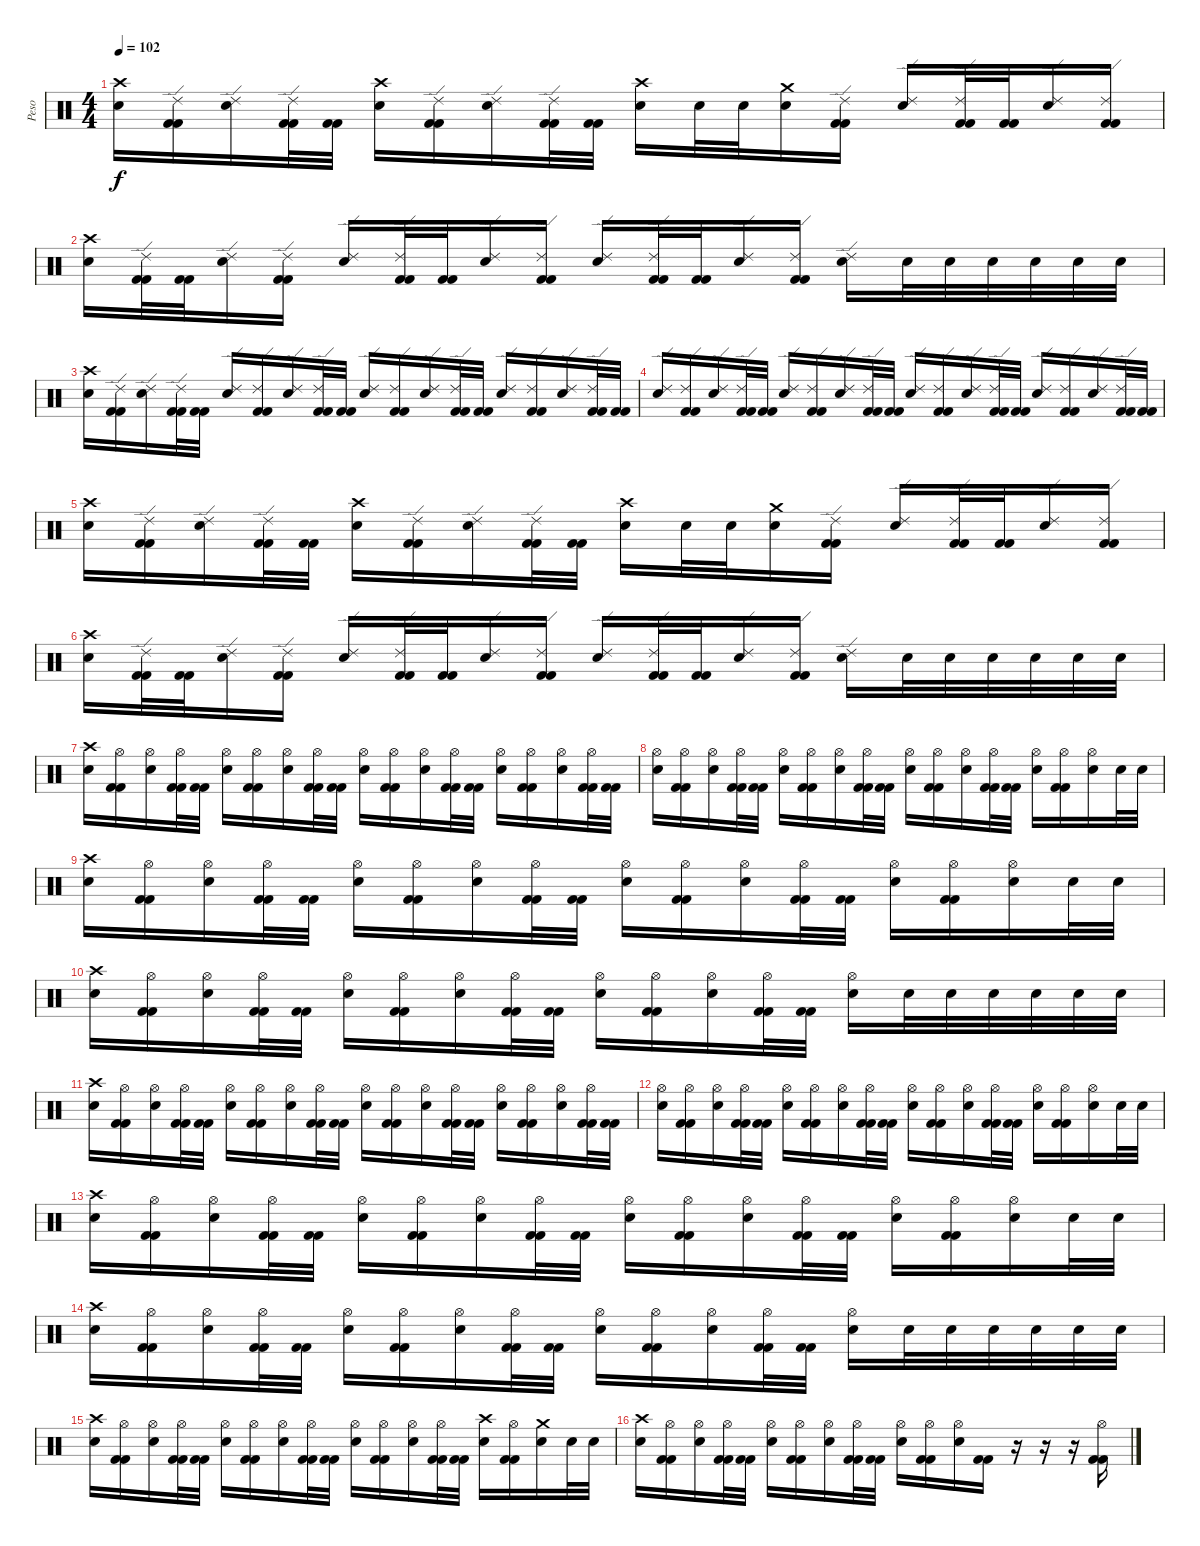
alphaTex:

\track ("Peso" "Peso") {instrument percussion}
\staff {score}
\articulation defaults
\ts (4 4)
\tempo 102
\clef neutral
\ks c
("Crash high (hit)" "Electric Snare (hit)").16{dy f} ("Ride (edge) 2" "Kick (hit) 2" "Kick (hit) 2").16 ("Ride (edge) 2" "Electric Snare (hit)").16 ("Ride (edge) 2" "Kick (hit) 2" "Kick (hit) 2").32 ("Kick (hit) 2" "Kick (hit) 2").32 ("Crash high (hit)" "Electric Snare (hit)").16 ("Ride (edge) 2" "Kick (hit) 2" "Kick (hit) 2").16 ("Ride (edge) 2" "Electric Snare (hit)").16 ("Ride (edge) 2" "Kick (hit) 2" "Kick (hit) 2").32 ("Kick (hit) 2" "Kick (hit) 2").32 ("Crash high (hit)" "Electric Snare (hit)").16 "Electric Snare (hit)".32 "Electric Snare (hit)".32 ("Crash medium (hit)" "Electric Snare (hit)").16 ("Ride (edge) 2" "Kick (hit) 2" "Kick (hit) 2").16 ("Ride (edge) 2" "Electric Snare (hit)").16 ("Ride (edge) 2" "Kick (hit) 2" "Kick (hit) 2").32 ("Kick (hit) 2" "Kick (hit) 2").32 ("Ride (edge) 2" "Electric Snare (hit)").16 ("Ride (edge) 2" "Kick (hit) 2" "Kick (hit) 2").16 |
("Crash high (hit)" "Electric Snare (hit)").16 ("Ride (edge) 2" "Kick (hit) 2" "Kick (hit) 2").32 ("Kick (hit) 2" "Kick (hit) 2").32 ("Ride (edge) 2" "Electric Snare (hit)").16 ("Ride (edge) 2" "Kick (hit) 2" "Kick (hit) 2").16 ("Ride (edge) 2" "Electric Snare (hit)").16 ("Ride (edge) 2" "Kick (hit) 2" "Kick (hit) 2").32 ("Kick (hit) 2" "Kick (hit) 2").32 ("Ride (edge) 2" "Electric Snare (hit)").16 ("Ride (edge) 2" "Kick (hit) 2" "Kick (hit) 2").16 ("Ride (edge) 2" "Electric Snare (hit)").16 ("Ride (edge) 2" "Kick (hit) 2" "Kick (hit) 2").32 ("Kick (hit) 2" "Kick (hit) 2").32 ("Ride (edge) 2" "Electric Snare (hit)").16 ("Ride (edge) 2" "Kick (hit) 2" "Kick (hit) 2").16 ("Ride (edge) 2" "Electric Snare (hit)").16 "Electric Snare (hit)".32 "Electric Snare (hit)".32 "Electric Snare (hit)".32 "Electric Snare (hit)".32 "Electric Snare (hit)".32 "Electric Snare (hit)".32 |
("Crash high (hit)" "Electric Snare (hit)").16 ("Ride (edge) 2" "Kick (hit) 2" "Kick (hit) 2").16 ("Ride (edge) 2" "Electric Snare (hit)").16 ("Ride (edge) 2" "Kick (hit) 2" "Kick (hit) 2").32 ("Kick (hit) 2" "Kick (hit) 2").32 ("Ride (edge) 2" "Electric Snare (hit)").16 ("Ride (edge) 2" "Kick (hit) 2" "Kick (hit) 2").16 ("Ride (edge) 2" "Electric Snare (hit)").16 ("Ride (edge) 2" "Kick (hit) 2" "Kick (hit) 2").32 ("Kick (hit) 2" "Kick (hit) 2").32 ("Ride (edge) 2" "Electric Snare (hit)").16 ("Ride (edge) 2" "Kick (hit) 2" "Kick (hit) 2").16 ("Ride (edge) 2" "Electric Snare (hit)").16 ("Ride (edge) 2" "Kick (hit) 2" "Kick (hit) 2").32 ("Kick (hit) 2" "Kick (hit) 2").32 ("Ride (edge) 2" "Electric Snare (hit)").16 ("Ride (edge) 2" "Kick (hit) 2" "Kick (hit) 2").16 ("Ride (edge) 2" "Electric Snare (hit)").16 ("Ride (edge) 2" "Kick (hit) 2" "Kick (hit) 2").32 ("Kick (hit) 2" "Kick (hit) 2").32 |
("Ride (edge) 2" "Electric Snare (hit)").16 ("Ride (edge) 2" "Kick (hit) 2" "Kick (hit) 2").16 ("Ride (edge) 2" "Electric Snare (hit)").16 ("Ride (edge) 2" "Kick (hit) 2" "Kick (hit) 2").32 ("Kick (hit) 2" "Kick (hit) 2").32 ("Ride (edge) 2" "Electric Snare (hit)").16 ("Ride (edge) 2" "Kick (hit) 2" "Kick (hit) 2").16 ("Ride (edge) 2" "Electric Snare (hit)").16 ("Ride (edge) 2" "Kick (hit) 2" "Kick (hit) 2").32 ("Kick (hit) 2" "Kick (hit) 2").32 ("Ride (edge) 2" "Electric Snare (hit)").16 ("Ride (edge) 2" "Kick (hit) 2" "Kick (hit) 2").16 ("Ride (edge) 2" "Electric Snare (hit)").16 ("Ride (edge) 2" "Kick (hit) 2" "Kick (hit) 2").32 ("Kick (hit) 2" "Kick (hit) 2").32 ("Ride (edge) 2" "Electric Snare (hit)").16 ("Ride (edge) 2" "Kick (hit) 2" "Kick (hit) 2").16 ("Ride (edge) 2" "Electric Snare (hit)").16 ("Ride (edge) 2" "Kick (hit) 2" "Kick (hit) 2").32 ("Kick (hit) 2" "Kick (hit) 2").32 |
("Crash high (hit)" "Electric Snare (hit)").16 ("Ride (edge) 2" "Kick (hit) 2" "Kick (hit) 2").16 ("Ride (edge) 2" "Electric Snare (hit)").16 ("Ride (edge) 2" "Kick (hit) 2" "Kick (hit) 2").32 ("Kick (hit) 2" "Kick (hit) 2").32 ("Crash high (hit)" "Electric Snare (hit)").16 ("Ride (edge) 2" "Kick (hit) 2" "Kick (hit) 2").16 ("Ride (edge) 2" "Electric Snare (hit)").16 ("Ride (edge) 2" "Kick (hit) 2" "Kick (hit) 2").32 ("Kick (hit) 2" "Kick (hit) 2").32 ("Crash high (hit)" "Electric Snare (hit)").16 "Electric Snare (hit)".32 "Electric Snare (hit)".32 ("Crash medium (hit)" "Electric Snare (hit)").16 ("Ride (edge) 2" "Kick (hit) 2" "Kick (hit) 2").16 ("Ride (edge) 2" "Electric Snare (hit)").16 ("Ride (edge) 2" "Kick (hit) 2" "Kick (hit) 2").32 ("Kick (hit) 2" "Kick (hit) 2").32 ("Ride (edge) 2" "Electric Snare (hit)").16 ("Ride (edge) 2" "Kick (hit) 2" "Kick (hit) 2").16 |
("Crash high (hit)" "Electric Snare (hit)").16 ("Ride (edge) 2" "Kick (hit) 2" "Kick (hit) 2").32 ("Kick (hit) 2" "Kick (hit) 2").32 ("Ride (edge) 2" "Electric Snare (hit)").16 ("Ride (edge) 2" "Kick (hit) 2" "Kick (hit) 2").16 ("Ride (edge) 2" "Electric Snare (hit)").16 ("Ride (edge) 2" "Kick (hit) 2" "Kick (hit) 2").32 ("Kick (hit) 2" "Kick (hit) 2").32 ("Ride (edge) 2" "Electric Snare (hit)").16 ("Ride (edge) 2" "Kick (hit) 2" "Kick (hit) 2").16 ("Ride (edge) 2" "Electric Snare (hit)").16 ("Ride (edge) 2" "Kick (hit) 2" "Kick (hit) 2").32 ("Kick (hit) 2" "Kick (hit) 2").32 ("Ride (edge) 2" "Electric Snare (hit)").16 ("Ride (edge) 2" "Kick (hit) 2" "Kick (hit) 2").16 ("Ride (edge) 2" "Electric Snare (hit)").16 "Electric Snare (hit)".32 "Electric Snare (hit)".32 "Electric Snare (hit)".32 "Electric Snare (hit)".32 "Electric Snare (hit)".32 "Electric Snare (hit)".32 |
("Crash high (hit)" "Electric Snare (hit)").16 ("Hi-Hat (open)" "Kick (hit) 2" "Kick (hit) 2").16 ("Hi-Hat (open)" "Electric Snare (hit)").16 ("Hi-Hat (open)" "Kick (hit) 2" "Kick (hit) 2").32 ("Kick (hit) 2" "Kick (hit) 2").32 ("Hi-Hat (open)" "Electric Snare (hit)").16 ("Hi-Hat (open)" "Kick (hit) 2" "Kick (hit) 2").16 ("Hi-Hat (open)" "Electric Snare (hit)").16 ("Hi-Hat (open)" "Kick (hit) 2" "Kick (hit) 2").32 ("Kick (hit) 2" "Kick (hit) 2").32 ("Hi-Hat (open)" "Electric Snare (hit)").16 ("Hi-Hat (open)" "Kick (hit) 2" "Kick (hit) 2").16 ("Hi-Hat (open)" "Electric Snare (hit)").16 ("Hi-Hat (open)" "Kick (hit) 2" "Kick (hit) 2").32 ("Kick (hit) 2" "Kick (hit) 2").32 ("Hi-Hat (open)" "Electric Snare (hit)").16 ("Hi-Hat (open)" "Kick (hit) 2" "Kick (hit) 2").16 ("Hi-Hat (open)" "Electric Snare (hit)").16 ("Hi-Hat (open)" "Kick (hit) 2" "Kick (hit) 2").32 ("Kick (hit) 2" "Kick (hit) 2").32 |
("Hi-Hat (open)" "Electric Snare (hit)").16 ("Hi-Hat (open)" "Kick (hit) 2" "Kick (hit) 2").16 ("Hi-Hat (open)" "Electric Snare (hit)").16 ("Hi-Hat (open)" "Kick (hit) 2" "Kick (hit) 2").32 ("Kick (hit) 2" "Kick (hit) 2").32 ("Hi-Hat (open)" "Electric Snare (hit)").16 ("Hi-Hat (open)" "Kick (hit) 2" "Kick (hit) 2").16 ("Hi-Hat (open)" "Electric Snare (hit)").16 ("Hi-Hat (open)" "Kick (hit) 2" "Kick (hit) 2").32 ("Kick (hit) 2" "Kick (hit) 2").32 ("Hi-Hat (open)" "Electric Snare (hit)").16 ("Hi-Hat (open)" "Kick (hit) 2" "Kick (hit) 2").16 ("Hi-Hat (open)" "Electric Snare (hit)").16 ("Hi-Hat (open)" "Kick (hit) 2" "Kick (hit) 2").32 ("Kick (hit) 2" "Kick (hit) 2").32 ("Hi-Hat (open)" "Electric Snare (hit)").16 ("Hi-Hat (open)" "Kick (hit) 2" "Kick (hit) 2").16 ("Hi-Hat (open)" "Electric Snare (hit)").16 "Electric Snare (hit)".32 "Electric Snare (hit)".32 |
("Crash high (hit)" "Electric Snare (hit)").16 ("Hi-Hat (open)" "Kick (hit) 2" "Kick (hit) 2").16 ("Hi-Hat (open)" "Electric Snare (hit)").16 ("Hi-Hat (open)" "Kick (hit) 2" "Kick (hit) 2").32 ("Kick (hit) 2" "Kick (hit) 2").32 ("Hi-Hat (open)" "Electric Snare (hit)").16 ("Hi-Hat (open)" "Kick (hit) 2" "Kick (hit) 2").16 ("Hi-Hat (open)" "Electric Snare (hit)").16 ("Hi-Hat (open)" "Kick (hit) 2" "Kick (hit) 2").32 ("Kick (hit) 2" "Kick (hit) 2").32 ("Hi-Hat (open)" "Electric Snare (hit)").16 ("Hi-Hat (open)" "Kick (hit) 2" "Kick (hit) 2").16 ("Hi-Hat (open)" "Electric Snare (hit)").16 ("Hi-Hat (open)" "Kick (hit) 2" "Kick (hit) 2").32 ("Kick (hit) 2" "Kick (hit) 2").32 ("Hi-Hat (open)" "Electric Snare (hit)").16 ("Hi-Hat (open)" "Kick (hit) 2" "Kick (hit) 2").16 ("Hi-Hat (open)" "Electric Snare (hit)").16 "Electric Snare (hit)".32 "Electric Snare (hit)".32 |
("Crash high (hit)" "Electric Snare (hit)").16 ("Hi-Hat (open)" "Kick (hit) 2" "Kick (hit) 2").16 ("Hi-Hat (open)" "Electric Snare (hit)").16 ("Hi-Hat (open)" "Kick (hit) 2" "Kick (hit) 2").32 ("Kick (hit) 2" "Kick (hit) 2").32 ("Hi-Hat (open)" "Electric Snare (hit)").16 ("Hi-Hat (open)" "Kick (hit) 2" "Kick (hit) 2").16 ("Hi-Hat (open)" "Electric Snare (hit)").16 ("Hi-Hat (open)" "Kick (hit) 2" "Kick (hit) 2").32 ("Kick (hit) 2" "Kick (hit) 2").32 ("Hi-Hat (open)" "Electric Snare (hit)").16 ("Hi-Hat (open)" "Kick (hit) 2" "Kick (hit) 2").16 ("Hi-Hat (open)" "Electric Snare (hit)").16 ("Hi-Hat (open)" "Kick (hit) 2" "Kick (hit) 2").32 ("Kick (hit) 2" "Kick (hit) 2").32 ("Hi-Hat (open)" "Electric Snare (hit)").16 "Electric Snare (hit)".32 "Electric Snare (hit)".32 "Electric Snare (hit)".32 "Electric Snare (hit)".32 "Electric Snare (hit)".32 "Electric Snare (hit)".32 |
("Crash high (hit)" "Electric Snare (hit)").16 ("Hi-Hat (open)" "Kick (hit) 2" "Kick (hit) 2").16 ("Hi-Hat (open)" "Electric Snare (hit)").16 ("Hi-Hat (open)" "Kick (hit) 2" "Kick (hit) 2").32 ("Kick (hit) 2" "Kick (hit) 2").32 ("Hi-Hat (open)" "Electric Snare (hit)").16 ("Hi-Hat (open)" "Kick (hit) 2" "Kick (hit) 2").16 ("Hi-Hat (open)" "Electric Snare (hit)").16 ("Hi-Hat (open)" "Kick (hit) 2" "Kick (hit) 2").32 ("Kick (hit) 2" "Kick (hit) 2").32 ("Hi-Hat (open)" "Electric Snare (hit)").16 ("Hi-Hat (open)" "Kick (hit) 2" "Kick (hit) 2").16 ("Hi-Hat (open)" "Electric Snare (hit)").16 ("Hi-Hat (open)" "Kick (hit) 2" "Kick (hit) 2").32 ("Kick (hit) 2" "Kick (hit) 2").32 ("Hi-Hat (open)" "Electric Snare (hit)").16 ("Hi-Hat (open)" "Kick (hit) 2" "Kick (hit) 2").16 ("Hi-Hat (open)" "Electric Snare (hit)").16 ("Hi-Hat (open)" "Kick (hit) 2" "Kick (hit) 2").32 ("Kick (hit) 2" "Kick (hit) 2").32 |
("Hi-Hat (open)" "Electric Snare (hit)").16 ("Hi-Hat (open)" "Kick (hit) 2" "Kick (hit) 2").16 ("Hi-Hat (open)" "Electric Snare (hit)").16 ("Hi-Hat (open)" "Kick (hit) 2" "Kick (hit) 2").32 ("Kick (hit) 2" "Kick (hit) 2").32 ("Hi-Hat (open)" "Electric Snare (hit)").16 ("Hi-Hat (open)" "Kick (hit) 2" "Kick (hit) 2").16 ("Hi-Hat (open)" "Electric Snare (hit)").16 ("Hi-Hat (open)" "Kick (hit) 2" "Kick (hit) 2").32 ("Kick (hit) 2" "Kick (hit) 2").32 ("Hi-Hat (open)" "Electric Snare (hit)").16 ("Hi-Hat (open)" "Kick (hit) 2" "Kick (hit) 2").16 ("Hi-Hat (open)" "Electric Snare (hit)").16 ("Hi-Hat (open)" "Kick (hit) 2" "Kick (hit) 2").32 ("Kick (hit) 2" "Kick (hit) 2").32 ("Hi-Hat (open)" "Electric Snare (hit)").16 ("Hi-Hat (open)" "Kick (hit) 2" "Kick (hit) 2").16 ("Hi-Hat (open)" "Electric Snare (hit)").16 "Electric Snare (hit)".32 "Electric Snare (hit)".32 |
("Crash high (hit)" "Electric Snare (hit)").16 ("Hi-Hat (open)" "Kick (hit) 2" "Kick (hit) 2").16 ("Hi-Hat (open)" "Electric Snare (hit)").16 ("Hi-Hat (open)" "Kick (hit) 2" "Kick (hit) 2").32 ("Kick (hit) 2" "Kick (hit) 2").32 ("Hi-Hat (open)" "Electric Snare (hit)").16 ("Hi-Hat (open)" "Kick (hit) 2" "Kick (hit) 2").16 ("Hi-Hat (open)" "Electric Snare (hit)").16 ("Hi-Hat (open)" "Kick (hit) 2" "Kick (hit) 2").32 ("Kick (hit) 2" "Kick (hit) 2").32 ("Hi-Hat (open)" "Electric Snare (hit)").16 ("Hi-Hat (open)" "Kick (hit) 2" "Kick (hit) 2").16 ("Hi-Hat (open)" "Electric Snare (hit)").16 ("Hi-Hat (open)" "Kick (hit) 2" "Kick (hit) 2").32 ("Kick (hit) 2" "Kick (hit) 2").32 ("Hi-Hat (open)" "Electric Snare (hit)").16 ("Hi-Hat (open)" "Kick (hit) 2" "Kick (hit) 2").16 ("Hi-Hat (open)" "Electric Snare (hit)").16 "Electric Snare (hit)".32 "Electric Snare (hit)".32 |
("Crash high (hit)" "Electric Snare (hit)").16 ("Hi-Hat (open)" "Kick (hit) 2" "Kick (hit) 2").16 ("Hi-Hat (open)" "Electric Snare (hit)").16 ("Hi-Hat (open)" "Kick (hit) 2" "Kick (hit) 2").32 ("Kick (hit) 2" "Kick (hit) 2").32 ("Hi-Hat (open)" "Electric Snare (hit)").16 ("Hi-Hat (open)" "Kick (hit) 2" "Kick (hit) 2").16 ("Hi-Hat (open)" "Electric Snare (hit)").16 ("Hi-Hat (open)" "Kick (hit) 2" "Kick (hit) 2").32 ("Kick (hit) 2" "Kick (hit) 2").32 ("Hi-Hat (open)" "Electric Snare (hit)").16 ("Hi-Hat (open)" "Kick (hit) 2" "Kick (hit) 2").16 ("Hi-Hat (open)" "Electric Snare (hit)").16 ("Hi-Hat (open)" "Kick (hit) 2" "Kick (hit) 2").32 ("Kick (hit) 2" "Kick (hit) 2").32 ("Hi-Hat (open)" "Electric Snare (hit)").16 "Electric Snare (hit)".32 "Electric Snare (hit)".32 "Electric Snare (hit)".32 "Electric Snare (hit)".32 "Electric Snare (hit)".32 "Electric Snare (hit)".32 |
("Crash high (hit)" "Electric Snare (hit)").16 ("Hi-Hat (open)" "Kick (hit) 2" "Kick (hit) 2").16 ("Hi-Hat (open)" "Electric Snare (hit)").16 ("Hi-Hat (open)" "Kick (hit) 2" "Kick (hit) 2").32 ("Kick (hit) 2" "Kick (hit) 2").32 ("Hi-Hat (open)" "Electric Snare (hit)").16 ("Hi-Hat (open)" "Kick (hit) 2" "Kick (hit) 2").16 ("Hi-Hat (open)" "Electric Snare (hit)").16 ("Hi-Hat (open)" "Kick (hit) 2" "Kick (hit) 2").32 ("Kick (hit) 2" "Kick (hit) 2").32 ("Hi-Hat (open)" "Electric Snare (hit)").16 ("Hi-Hat (open)" "Kick (hit) 2" "Kick (hit) 2").16 ("Hi-Hat (open)" "Electric Snare (hit)").16 ("Hi-Hat (open)" "Kick (hit) 2" "Kick (hit) 2").32 ("Kick (hit) 2" "Kick (hit) 2").32 ("Crash high (hit)" "Electric Snare (hit)").16 ("Hi-Hat (open)" "Kick (hit) 2" "Kick (hit) 2").16 ("Crash medium (hit)" "Electric Snare (hit)").16 "Electric Snare (hit)".32 "Electric Snare (hit)".32 |
("Crash high (hit)" "Electric Snare (hit)").16 ("Hi-Hat (open)" "Kick (hit) 2" "Kick (hit) 2").16 ("Hi-Hat (open)" "Electric Snare (hit)").16 ("Hi-Hat (open)" "Kick (hit) 2" "Kick (hit) 2").32 ("Kick (hit) 2" "Kick (hit) 2").32 ("Hi-Hat (open)" "Electric Snare (hit)").16 ("Hi-Hat (open)" "Kick (hit) 2" "Kick (hit) 2").16 ("Hi-Hat (open)" "Electric Snare (hit)").16 ("Hi-Hat (open)" "Kick (hit) 2" "Kick (hit) 2").32 ("Kick (hit) 2" "Kick (hit) 2").32 ("Hi-Hat (open)" "Electric Snare (hit)").16 ("Hi-Hat (open)" "Kick (hit) 2" "Kick (hit) 2").16 ("Hi-Hat (open)" "Electric Snare (hit)").16 ("Kick (hit) 2" "Kick (hit) 2").16 r.16 r.16 r.16 ("Hi-Hat (open)" "Kick (hit) 2" "Kick (hit) 2").16
